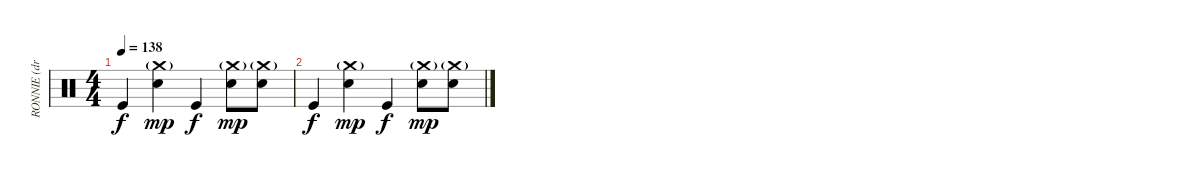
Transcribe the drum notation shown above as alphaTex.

\track ("RONNIE (drums)" "RONNIE (dr") {instrument percussion}
\staff {score}
\articulation defaults
\ts (4 4)
\tempo 138
\clef neutral
\ks c "Kick (hit)".4{dy f}
("Electric Snare (hit)" "Crash medium (hit)"{g}).4{dy mp} "Kick (hit)".4{dy f} ("Electric Snare (hit)" "Crash medium (hit)"{g}).8{dy mp} ("Electric Snare (hit)" "Crash medium (hit)"{g}).8 |
"Kick (hit)".4{dy f} ("Electric Snare (hit)" "Crash medium (hit)"{g}).4{dy mp} "Kick (hit)".4{dy f} ("Electric Snare (hit)" "Crash medium (hit)"{g}).8{dy mp} ("Electric Snare (hit)" "Crash medium (hit)"{g}).8
